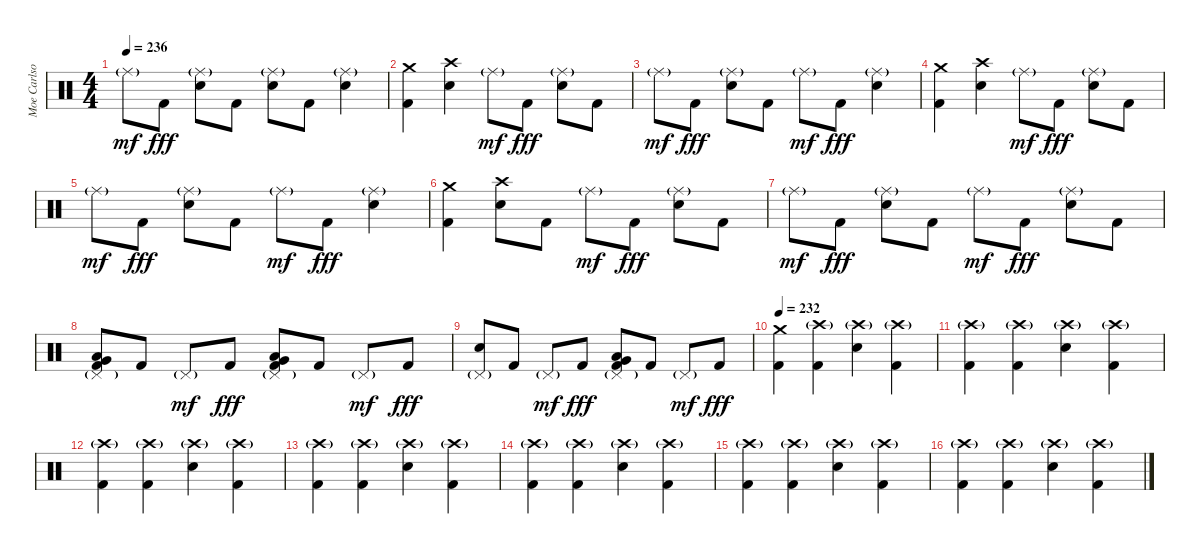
\track ("Moe Carlson" "Moe Carlso") {instrument percussion}
\staff {score}
\articulation defaults
\ts (4 4)
\tempo 236
\clef neutral
\ks c "Ride (middle)"{g}.8{dy mf} "Kick (hit) 2".8{dy fff}
("Ride (middle)"{g} "Electric Snare (hit)").8 "Kick (hit) 2".8 ("Ride (middle)"{g} "Electric Snare (hit)").8 "Kick (hit) 2".8 ("Ride (middle)"{g} "Electric Snare (hit)").4 |
("Crash medium (hit)" "Kick (hit) 2").4 ("Crash high (hit)" "Electric Snare (hit)").4 "Ride (middle)"{g}.8{dy mf} "Kick (hit) 2".8{dy fff} ("Ride (middle)"{g} "Electric Snare (hit)").8 "Kick (hit) 2".8 |
"Ride (middle)"{g}.8{dy mf} "Kick (hit) 2".8{dy fff} ("Ride (middle)"{g} "Electric Snare (hit)").8 "Kick (hit) 2".8 "Ride (middle)"{g}.8{dy mf} "Kick (hit) 2".8{dy fff} ("Ride (middle)"{g} "Electric Snare (hit)").4 |
("Crash medium (hit)" "Kick (hit) 2").4 ("Crash high (hit)" "Electric Snare (hit)").4 "Ride (middle)"{g}.8{dy mf} "Kick (hit) 2".8{dy fff} ("Ride (middle)"{g} "Electric Snare (hit)").8 "Kick (hit) 2".8 |
"Ride (middle)"{g}.8{dy mf} "Kick (hit) 2".8{dy fff} ("Ride (middle)"{g} "Electric Snare (hit)").8 "Kick (hit) 2".8 "Ride (middle)"{g}.8{dy mf} "Kick (hit) 2".8{dy fff} ("Ride (middle)"{g} "Electric Snare (hit)").4 |
("Crash medium (hit)" "Kick (hit) 2").4 ("Crash high (hit)" "Electric Snare (hit)").8 "Kick (hit) 2".8 "Ride (middle)"{g}.8{dy mf} "Kick (hit) 2".8{dy fff} ("Ride (middle)"{g} "Electric Snare (hit)").8 "Kick (hit) 2".8 |
"Ride (middle)"{g}.8{dy mf} "Kick (hit) 2".8{dy fff} ("Ride (middle)"{g} "Electric Snare (hit)").8 "Kick (hit) 2".8 "Ride (middle)"{g}.8{dy mf} "Kick (hit) 2".8{dy fff} ("Ride (middle)"{g} "Electric Snare (hit)").8 "Kick (hit) 2".8 |
("Pedal Hi-Hat (hit)"{g} "Very Low Tom (hit)" "Low Floor Tom (hit)" "Kick (hit) 2").8 "Kick (hit) 2".8 "Pedal Hi-Hat (hit)"{g}.8{dy mf} "Kick (hit) 2".8{dy fff} ("Pedal Hi-Hat (hit)"{g} "Very Low Tom (hit)" "Low Floor Tom (hit)" "Kick (hit) 2").8 "Kick (hit) 2".8 "Pedal Hi-Hat (hit)"{g}.8{dy mf} "Kick (hit) 2".8{dy fff} |
("Pedal Hi-Hat (hit)"{g} "Electric Snare (hit)").8 "Kick (hit) 2".8 "Pedal Hi-Hat (hit)"{g}.8{dy mf} "Kick (hit) 2".8{dy fff} ("Pedal Hi-Hat (hit)"{g} "Very Low Tom (hit)" "Low Floor Tom (hit)" "Kick (hit) 2").8 "Kick (hit) 2".8 "Pedal Hi-Hat (hit)"{g}.8{dy mf} "Kick (hit) 2".8{dy fff} |
\tempo 232
("Crash medium (hit)" "Kick (hit) 2").4 ("Crash high (hit)"{g} "Kick (hit) 2").4 ("Crash high (hit)"{g} "Electric Snare (hit)").4 ("Crash high (hit)"{g} "Kick (hit) 2").4 |
("Crash high (hit)"{g} "Kick (hit) 2").4 ("Crash high (hit)"{g} "Kick (hit) 2").4 ("Crash high (hit)"{g} "Electric Snare (hit)").4 ("Crash high (hit)"{g} "Kick (hit) 2").4 |
("Crash high (hit)"{g} "Kick (hit) 2").4 ("Crash high (hit)"{g} "Kick (hit) 2").4 ("Crash high (hit)"{g} "Electric Snare (hit)").4 ("Crash high (hit)"{g} "Kick (hit) 2").4 |
("Crash high (hit)"{g} "Kick (hit) 2").4 ("Crash high (hit)"{g} "Kick (hit) 2").4 ("Crash high (hit)"{g} "Electric Snare (hit)").4 ("Crash high (hit)"{g} "Kick (hit) 2").4 |
("Crash high (hit)"{g} "Kick (hit) 2").4 ("Crash high (hit)"{g} "Kick (hit) 2").4 ("Crash high (hit)"{g} "Electric Snare (hit)").4 ("Crash high (hit)"{g} "Kick (hit) 2").4 |
("Crash high (hit)"{g} "Kick (hit) 2").4 ("Crash high (hit)"{g} "Kick (hit) 2").4 ("Crash high (hit)"{g} "Electric Snare (hit)").4 ("Crash high (hit)"{g} "Kick (hit) 2").4 |
("Crash high (hit)"{g} "Kick (hit) 2").4 ("Crash high (hit)"{g} "Kick (hit) 2").4 ("Crash high (hit)"{g} "Electric Snare (hit)").4 ("Crash high (hit)"{g} "Kick (hit) 2").4
